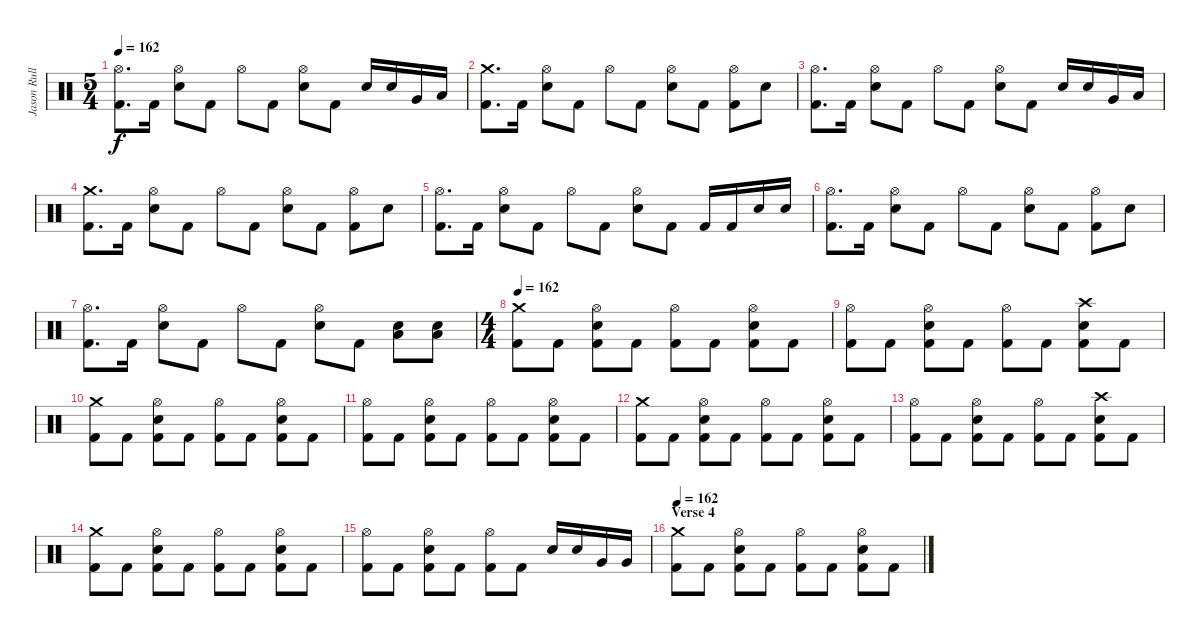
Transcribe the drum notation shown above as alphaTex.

\track ("Jason Rullo" "Jason Rull") {instrument percussion}
\staff {score}
\articulation defaults
\ts (5 4)
\tempo 162
\clef neutral
\ks c
("Hi-Hat (open)" "Kick (hit) 2").8{d dy f} "Kick (hit) 2".16 ("Hi-Hat (open)" "Electric Snare (hit)").8 "Kick (hit) 2".8 "Hi-Hat (open)".8 "Kick (hit) 2".8 ("Hi-Hat (open)" "Electric Snare (hit)").8 "Kick (hit) 2".8 "Electric Snare (hit)".16 "Electric Snare (hit)".16 "Very Low Tom (hit)".16 "Low Floor Tom (hit)".16 |
("Crash medium (hit)" "Kick (hit) 2").8{d} "Kick (hit) 2".16 ("Hi-Hat (open)" "Electric Snare (hit)").8 "Kick (hit) 2".8 "Hi-Hat (open)".8 "Kick (hit) 2".8 ("Hi-Hat (open)" "Electric Snare (hit)").8 "Kick (hit) 2".8 ("Kick (hit) 2" "Hi-Hat (open)").8 "Electric Snare (hit)".8 |
("Hi-Hat (open)" "Kick (hit) 2").8{d} "Kick (hit) 2".16 ("Hi-Hat (open)" "Electric Snare (hit)").8 "Kick (hit) 2".8 "Hi-Hat (open)".8 "Kick (hit) 2".8 ("Hi-Hat (open)" "Electric Snare (hit)").8 "Kick (hit) 2".8 "Electric Snare (hit)".16 "Electric Snare (hit)".16 "Very Low Tom (hit)".16 "Low Floor Tom (hit)".16 |
("Crash medium (hit)" "Kick (hit) 2").8{d} "Kick (hit) 2".16 ("Hi-Hat (open)" "Electric Snare (hit)").8 "Kick (hit) 2".8 "Hi-Hat (open)".8 "Kick (hit) 2".8 ("Hi-Hat (open)" "Electric Snare (hit)").8 "Kick (hit) 2".8 ("Kick (hit) 2" "Hi-Hat (open)").8 "Electric Snare (hit)".8 |
("Hi-Hat (open)" "Kick (hit) 2").8{d} "Kick (hit) 2".16 ("Hi-Hat (open)" "Electric Snare (hit)").8 "Kick (hit) 2".8 "Hi-Hat (open)".8 "Kick (hit) 2".8 ("Hi-Hat (open)" "Electric Snare (hit)").8 "Kick (hit) 2".8 "Kick (hit) 2".16 "Kick (hit) 2".16 "Electric Snare (hit)".16 "Electric Snare (hit)".16 |
("Hi-Hat (open)" "Kick (hit) 2").8{d} "Kick (hit) 2".16 ("Hi-Hat (open)" "Electric Snare (hit)").8 "Kick (hit) 2".8 "Hi-Hat (open)".8 "Kick (hit) 2".8 ("Hi-Hat (open)" "Electric Snare (hit)").8 "Kick (hit) 2".8 ("Kick (hit) 2" "Hi-Hat (open)").8 "Electric Snare (hit)".8 |
("Hi-Hat (open)" "Kick (hit) 2").8{d} "Kick (hit) 2".16 ("Hi-Hat (open)" "Electric Snare (hit)").8 "Kick (hit) 2".8 "Hi-Hat (open)".8 "Kick (hit) 2".8 ("Hi-Hat (open)" "Electric Snare (hit)").8 "Kick (hit) 2".8 ("Electric Snare (hit)" "Low Floor Tom (hit)").8 ("Electric Snare (hit)" "Low Floor Tom (hit)").8 |
\ts (4 4)
\tempo 162
("Crash medium (hit)" "Kick (hit) 2").8 "Kick (hit) 2".8 ("Hi-Hat (open)" "Electric Snare (hit)" "Kick (hit) 2").8 "Kick (hit) 2".8 ("Hi-Hat (open)" "Kick (hit) 2").8 "Kick (hit) 2".8 ("Hi-Hat (open)" "Electric Snare (hit)" "Kick (hit) 2").8 "Kick (hit) 2".8 |
("Hi-Hat (open)" "Kick (hit) 2").8 "Kick (hit) 2".8 ("Hi-Hat (open)" "Electric Snare (hit)" "Kick (hit) 2").8 "Kick (hit) 2".8 ("Hi-Hat (open)" "Kick (hit) 2").8 "Kick (hit) 2".8 ("Crash high (hit)" "Electric Snare (hit)" "Kick (hit) 2").8 "Kick (hit) 2".8 |
("Crash medium (hit)" "Kick (hit) 2").8 "Kick (hit) 2".8 ("Hi-Hat (open)" "Electric Snare (hit)" "Kick (hit) 2").8 "Kick (hit) 2".8 ("Hi-Hat (open)" "Kick (hit) 2").8 "Kick (hit) 2".8 ("Hi-Hat (open)" "Electric Snare (hit)" "Kick (hit) 2").8 "Kick (hit) 2".8 |
("Hi-Hat (open)" "Kick (hit) 2").8 "Kick (hit) 2".8 ("Hi-Hat (open)" "Electric Snare (hit)" "Kick (hit) 2").8 "Kick (hit) 2".8 ("Hi-Hat (open)" "Kick (hit) 2").8 "Kick (hit) 2".8 ("Hi-Hat (open)" "Electric Snare (hit)" "Kick (hit) 2").8 "Kick (hit) 2".8 |
("Crash medium (hit)" "Kick (hit) 2").8 "Kick (hit) 2".8 ("Hi-Hat (open)" "Electric Snare (hit)" "Kick (hit) 2").8 "Kick (hit) 2".8 ("Hi-Hat (open)" "Kick (hit) 2").8 "Kick (hit) 2".8 ("Hi-Hat (open)" "Electric Snare (hit)" "Kick (hit) 2").8 "Kick (hit) 2".8 |
("Hi-Hat (open)" "Kick (hit) 2").8 "Kick (hit) 2".8 ("Hi-Hat (open)" "Electric Snare (hit)" "Kick (hit) 2").8 "Kick (hit) 2".8 ("Hi-Hat (open)" "Kick (hit) 2").8 "Kick (hit) 2".8 ("Crash high (hit)" "Electric Snare (hit)" "Kick (hit) 2").8 "Kick (hit) 2".8 |
("Crash medium (hit)" "Kick (hit) 2").8 "Kick (hit) 2".8 ("Hi-Hat (open)" "Electric Snare (hit)" "Kick (hit) 2").8 "Kick (hit) 2".8 ("Hi-Hat (open)" "Kick (hit) 2").8 "Kick (hit) 2".8 ("Hi-Hat (open)" "Electric Snare (hit)" "Kick (hit) 2").8 "Kick (hit) 2".8 |
("Hi-Hat (open)" "Kick (hit) 2").8 "Kick (hit) 2".8 ("Hi-Hat (open)" "Electric Snare (hit)" "Kick (hit) 2").8 "Kick (hit) 2".8 ("Hi-Hat (open)" "Kick (hit) 2").8 "Kick (hit) 2".8 "Electric Snare (hit)".16 "Electric Snare (hit)".16 "Very Low Tom (hit)".16 "Very Low Tom (hit)".16 |
\section ("" "Verse 4")
\tempo 162
("Crash medium (hit)" "Kick (hit) 2").8 "Kick (hit) 2".8 ("Hi-Hat (open)" "Electric Snare (hit)" "Kick (hit) 2").8 "Kick (hit) 2".8 ("Hi-Hat (open)" "Kick (hit) 2").8 "Kick (hit) 2".8 ("Hi-Hat (open)" "Electric Snare (hit)" "Kick (hit) 2").8 "Kick (hit) 2".8
